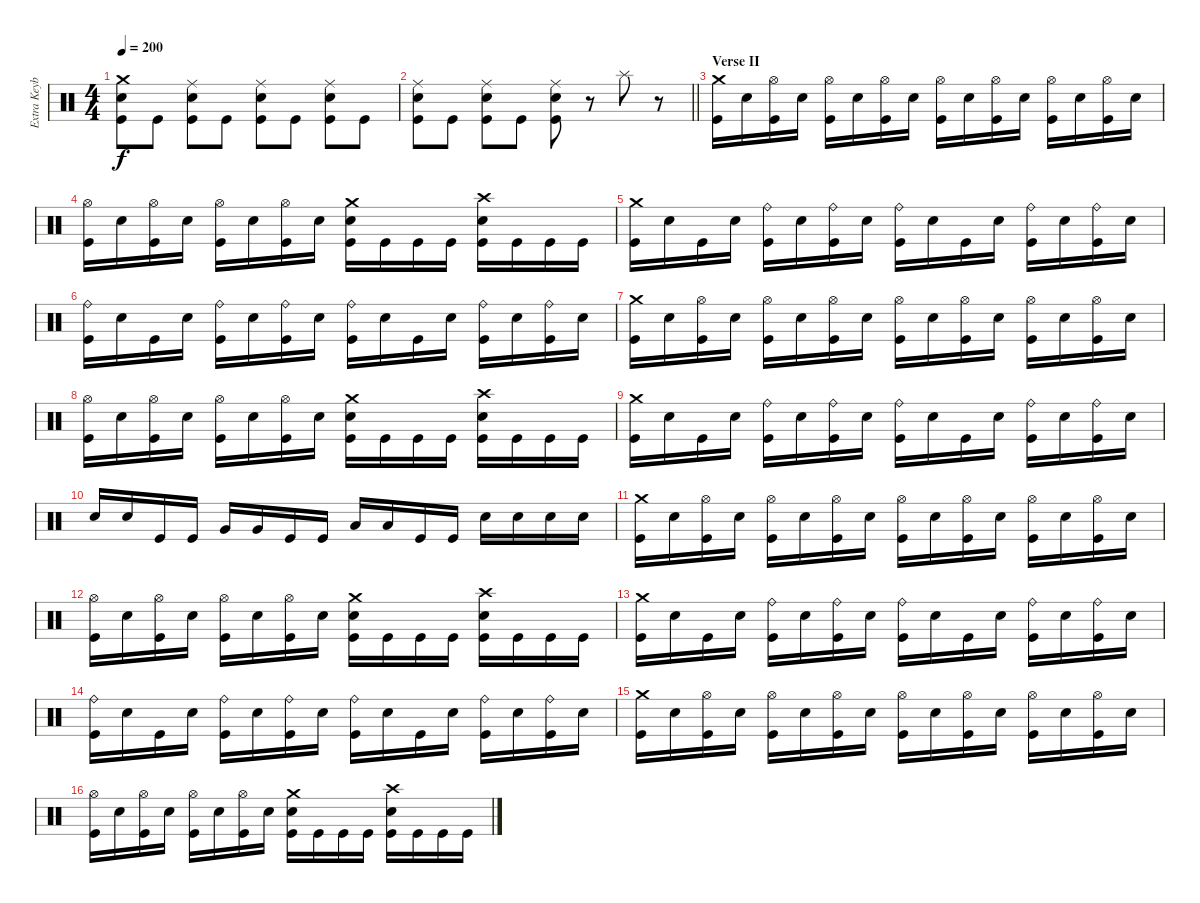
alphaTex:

\track ("Extra Keyboard" "Extra Keyb") {instrument percussion}
\staff {score}
\articulation defaults
\ts (4 4)
\tempo 200
\clef neutral
\ks c
("Crash medium (hit)" "Electric Snare (hit)" "Kick (hit)").8{dy f} "Kick (hit)".8 ("Ride (middle)" "Electric Snare (hit)" "Kick (hit)").8 "Kick (hit)".8 ("Ride (middle)" "Electric Snare (hit)" "Kick (hit)").8 "Kick (hit)".8 ("Ride (middle)" "Electric Snare (hit)" "Kick (hit)").8 "Kick (hit)".8 |
\barLineRight lightlight
("Ride (middle)" "Electric Snare (hit)" "Kick (hit)").8 "Kick (hit)".8 ("Ride (middle)" "Electric Snare (hit)" "Kick (hit)").8 "Kick (hit)".8 ("Ride (middle)" "Electric Snare (hit)" "Kick (hit)").8 r.8 "Splash (hit)".8 r.8 |
\section ("" "Verse II")
("Crash medium (hit)" "Kick (hit)").16 "Electric Snare (hit)".16 ("Hi-Hat (open)" "Kick (hit)").16 "Electric Snare (hit)".16 ("Hi-Hat (open)" "Kick (hit)").16 "Electric Snare (hit)".16 ("Hi-Hat (open)" "Kick (hit)").16 "Electric Snare (hit)".16 ("Hi-Hat (open)" "Kick (hit)").16 "Electric Snare (hit)".16 ("Hi-Hat (open)" "Kick (hit)").16 "Electric Snare (hit)".16 ("Hi-Hat (open)" "Kick (hit)").16 "Electric Snare (hit)".16 ("Hi-Hat (open)" "Kick (hit)").16 "Electric Snare (hit)".16 |
("Hi-Hat (open)" "Kick (hit)").16 "Electric Snare (hit)".16 ("Hi-Hat (open)" "Kick (hit)").16 "Electric Snare (hit)".16 ("Hi-Hat (open)" "Kick (hit)").16 "Electric Snare (hit)".16 ("Hi-Hat (open)" "Kick (hit)").16 "Electric Snare (hit)".16 ("Crash medium (hit)" "Electric Snare (hit)" "Kick (hit)").16 "Kick (hit)".16 "Kick (hit)".16 "Kick (hit)".16 ("Crash high (hit)" "Electric Snare (hit)" "Kick (hit)").16 "Kick (hit)".16 "Kick (hit)".16 "Kick (hit)".16 |
("Crash medium (hit)" "Kick (hit)").16 "Electric Snare (hit)".16 "Kick (hit)".16 "Electric Snare (hit)".16 ("Ride (bell)" "Kick (hit)").16 "Electric Snare (hit)".16 ("Ride (bell)" "Kick (hit)").16 "Electric Snare (hit)".16 ("Ride (bell)" "Kick (hit)").16 "Electric Snare (hit)".16 "Kick (hit)".16 "Electric Snare (hit)".16 ("Ride (bell)" "Kick (hit)").16 "Electric Snare (hit)".16 ("Ride (bell)" "Kick (hit)").16 "Electric Snare (hit)".16 |
("Ride (bell)" "Kick (hit)").16 "Electric Snare (hit)".16 "Kick (hit)".16 "Electric Snare (hit)".16 ("Ride (bell)" "Kick (hit)").16 "Electric Snare (hit)".16 ("Ride (bell)" "Kick (hit)").16 "Electric Snare (hit)".16 ("Ride (bell)" "Kick (hit)").16 "Electric Snare (hit)".16 "Kick (hit)".16 "Electric Snare (hit)".16 ("Ride (bell)" "Kick (hit)").16 "Electric Snare (hit)".16 ("Ride (bell)" "Kick (hit)").16 "Electric Snare (hit)".16 |
("Crash medium (hit)" "Kick (hit)").16 "Electric Snare (hit)".16 ("Hi-Hat (open)" "Kick (hit)").16 "Electric Snare (hit)".16 ("Hi-Hat (open)" "Kick (hit)").16 "Electric Snare (hit)".16 ("Hi-Hat (open)" "Kick (hit)").16 "Electric Snare (hit)".16 ("Hi-Hat (open)" "Kick (hit)").16 "Electric Snare (hit)".16 ("Hi-Hat (open)" "Kick (hit)").16 "Electric Snare (hit)".16 ("Hi-Hat (open)" "Kick (hit)").16 "Electric Snare (hit)".16 ("Hi-Hat (open)" "Kick (hit)").16 "Electric Snare (hit)".16 |
("Hi-Hat (open)" "Kick (hit)").16 "Electric Snare (hit)".16 ("Hi-Hat (open)" "Kick (hit)").16 "Electric Snare (hit)".16 ("Hi-Hat (open)" "Kick (hit)").16 "Electric Snare (hit)".16 ("Hi-Hat (open)" "Kick (hit)").16 "Electric Snare (hit)".16 ("Crash medium (hit)" "Electric Snare (hit)" "Kick (hit)").16 "Kick (hit)".16 "Kick (hit)".16 "Kick (hit)".16 ("Crash high (hit)" "Electric Snare (hit)" "Kick (hit)").16 "Kick (hit)".16 "Kick (hit)".16 "Kick (hit)".16 |
("Crash medium (hit)" "Kick (hit)").16 "Electric Snare (hit)".16 "Kick (hit)".16 "Electric Snare (hit)".16 ("Ride (bell)" "Kick (hit)").16 "Electric Snare (hit)".16 ("Ride (bell)" "Kick (hit)").16 "Electric Snare (hit)".16 ("Ride (bell)" "Kick (hit)").16 "Electric Snare (hit)".16 "Kick (hit)".16 "Electric Snare (hit)".16 ("Ride (bell)" "Kick (hit)").16 "Electric Snare (hit)".16 ("Ride (bell)" "Kick (hit)").16 "Electric Snare (hit)".16 |
"Electric Snare (hit)".16 "Electric Snare (hit)".16 "Kick (hit)".16 "Kick (hit)".16 "Very Low Tom (hit)".16 "Very Low Tom (hit)".16 "Kick (hit)".16 "Kick (hit)".16 "Low Floor Tom (hit)".16 "Low Floor Tom (hit)".16 "Kick (hit)".16 "Kick (hit)".16 "Electric Snare (hit)".16 "Electric Snare (hit)".16 "Electric Snare (hit)".16 "Electric Snare (hit)".16 |
("Crash medium (hit)" "Kick (hit)").16 "Electric Snare (hit)".16 ("Hi-Hat (open)" "Kick (hit)").16 "Electric Snare (hit)".16 ("Hi-Hat (open)" "Kick (hit)").16 "Electric Snare (hit)".16 ("Hi-Hat (open)" "Kick (hit)").16 "Electric Snare (hit)".16 ("Hi-Hat (open)" "Kick (hit)").16 "Electric Snare (hit)".16 ("Hi-Hat (open)" "Kick (hit)").16 "Electric Snare (hit)".16 ("Hi-Hat (open)" "Kick (hit)").16 "Electric Snare (hit)".16 ("Hi-Hat (open)" "Kick (hit)").16 "Electric Snare (hit)".16 |
("Hi-Hat (open)" "Kick (hit)").16 "Electric Snare (hit)".16 ("Hi-Hat (open)" "Kick (hit)").16 "Electric Snare (hit)".16 ("Hi-Hat (open)" "Kick (hit)").16 "Electric Snare (hit)".16 ("Hi-Hat (open)" "Kick (hit)").16 "Electric Snare (hit)".16 ("Crash medium (hit)" "Electric Snare (hit)" "Kick (hit)").16 "Kick (hit)".16 "Kick (hit)".16 "Kick (hit)".16 ("Crash high (hit)" "Electric Snare (hit)" "Kick (hit)").16 "Kick (hit)".16 "Kick (hit)".16 "Kick (hit)".16 |
("Crash medium (hit)" "Kick (hit)").16 "Electric Snare (hit)".16 "Kick (hit)".16 "Electric Snare (hit)".16 ("Ride (bell)" "Kick (hit)").16 "Electric Snare (hit)".16 ("Ride (bell)" "Kick (hit)").16 "Electric Snare (hit)".16 ("Ride (bell)" "Kick (hit)").16 "Electric Snare (hit)".16 "Kick (hit)".16 "Electric Snare (hit)".16 ("Ride (bell)" "Kick (hit)").16 "Electric Snare (hit)".16 ("Ride (bell)" "Kick (hit)").16 "Electric Snare (hit)".16 |
("Ride (bell)" "Kick (hit)").16 "Electric Snare (hit)".16 "Kick (hit)".16 "Electric Snare (hit)".16 ("Ride (bell)" "Kick (hit)").16 "Electric Snare (hit)".16 ("Ride (bell)" "Kick (hit)").16 "Electric Snare (hit)".16 ("Ride (bell)" "Kick (hit)").16 "Electric Snare (hit)".16 "Kick (hit)".16 "Electric Snare (hit)".16 ("Ride (bell)" "Kick (hit)").16 "Electric Snare (hit)".16 ("Ride (bell)" "Kick (hit)").16 "Electric Snare (hit)".16 |
("Crash medium (hit)" "Kick (hit)").16 "Electric Snare (hit)".16 ("Hi-Hat (open)" "Kick (hit)").16 "Electric Snare (hit)".16 ("Hi-Hat (open)" "Kick (hit)").16 "Electric Snare (hit)".16 ("Hi-Hat (open)" "Kick (hit)").16 "Electric Snare (hit)".16 ("Hi-Hat (open)" "Kick (hit)").16 "Electric Snare (hit)".16 ("Hi-Hat (open)" "Kick (hit)").16 "Electric Snare (hit)".16 ("Hi-Hat (open)" "Kick (hit)").16 "Electric Snare (hit)".16 ("Hi-Hat (open)" "Kick (hit)").16 "Electric Snare (hit)".16 |
("Hi-Hat (open)" "Kick (hit)").16 "Electric Snare (hit)".16 ("Hi-Hat (open)" "Kick (hit)").16 "Electric Snare (hit)".16 ("Hi-Hat (open)" "Kick (hit)").16 "Electric Snare (hit)".16 ("Hi-Hat (open)" "Kick (hit)").16 "Electric Snare (hit)".16 ("Crash medium (hit)" "Electric Snare (hit)" "Kick (hit)").16 "Kick (hit)".16 "Kick (hit)".16 "Kick (hit)".16 ("Crash high (hit)" "Electric Snare (hit)" "Kick (hit)").16 "Kick (hit)".16 "Kick (hit)".16 "Kick (hit)".16
